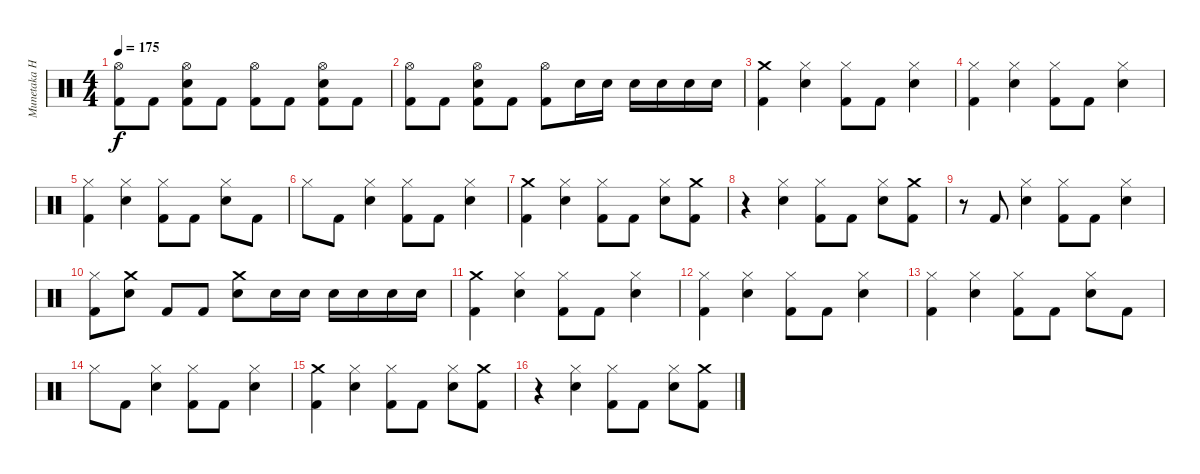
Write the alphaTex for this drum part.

\track ("Munetaka Higuchi" "Munetaka H") {instrument percussion}
\staff {score}
\articulation defaults
\ts (4 4)
\tempo 175
\clef neutral
\ks c
("Hi-Hat (open)" "Kick (hit) 2").8{dy f} "Kick (hit) 2".8 ("Hi-Hat (open)" "Electric Snare (hit)" "Kick (hit) 2").8 "Kick (hit) 2".8 ("Hi-Hat (open)" "Kick (hit) 2").8 "Kick (hit) 2".8 ("Hi-Hat (open)" "Electric Snare (hit)" "Kick (hit) 2").8 "Kick (hit) 2".8 |
("Hi-Hat (open)" "Kick (hit) 2").8 "Kick (hit) 2".8 ("Hi-Hat (open)" "Electric Snare (hit)" "Kick (hit) 2").8 "Kick (hit) 2".8 ("Hi-Hat (open)" "Kick (hit) 2").8 "Electric Snare (hit)".16 "Electric Snare (hit)".16 "Electric Snare (hit)".16 "Electric Snare (hit)".16 "Electric Snare (hit)".16 "Electric Snare (hit)".16 |
("Crash medium (hit)" "Kick (hit) 2").4 ("Hi-Hat (closed)" "Electric Snare (hit)").4 ("Hi-Hat (closed)" "Kick (hit) 2").8 "Kick (hit) 2".8 ("Hi-Hat (closed)" "Electric Snare (hit)").4 |
("Hi-Hat (closed)" "Kick (hit) 2").4 ("Hi-Hat (closed)" "Electric Snare (hit)").4 ("Hi-Hat (closed)" "Kick (hit) 2").8 "Kick (hit) 2".8 ("Hi-Hat (closed)" "Electric Snare (hit)").4 |
("Hi-Hat (closed)" "Kick (hit) 2").4 ("Hi-Hat (closed)" "Electric Snare (hit)").4 ("Hi-Hat (closed)" "Kick (hit) 2").8 "Kick (hit) 2".8 ("Hi-Hat (closed)" "Electric Snare (hit)").8 "Kick (hit) 2".8 |
"Hi-Hat (closed)".8 "Kick (hit) 2".8 ("Hi-Hat (closed)" "Electric Snare (hit)").4 ("Hi-Hat (closed)" "Kick (hit) 2").8 "Kick (hit) 2".8 ("Hi-Hat (closed)" "Electric Snare (hit)").4 |
("Crash medium (hit)" "Kick (hit) 2").4 ("Hi-Hat (closed)" "Electric Snare (hit)").4 ("Hi-Hat (closed)" "Kick (hit) 2").8 "Kick (hit) 2".8 ("Hi-Hat (closed)" "Electric Snare (hit)").8 ("Crash medium (hit)" "Kick (hit) 2").8 |
r.4 ("Hi-Hat (closed)" "Electric Snare (hit)").4 ("Hi-Hat (closed)" "Kick (hit) 2").8 "Kick (hit) 2".8 ("Hi-Hat (closed)" "Electric Snare (hit)").8 ("Crash medium (hit)" "Kick (hit) 2").8 |
r.8 "Kick (hit) 2".8 ("Hi-Hat (closed)" "Electric Snare (hit)").4 ("Hi-Hat (closed)" "Kick (hit) 2").8 "Kick (hit) 2".8 ("Hi-Hat (closed)" "Electric Snare (hit)").4 |
("Hi-Hat (closed)" "Kick (hit) 2").8 ("Crash medium (hit)" "Electric Snare (hit)").8 "Kick (hit) 2".8 "Kick (hit) 2".8 ("Crash medium (hit)" "Electric Snare (hit)").8 "Electric Snare (hit)".16 "Electric Snare (hit)".16 "Electric Snare (hit)".16 "Electric Snare (hit)".16 "Electric Snare (hit)".16 "Electric Snare (hit)".16 |
("Crash medium (hit)" "Kick (hit) 2").4 ("Hi-Hat (closed)" "Electric Snare (hit)").4 ("Hi-Hat (closed)" "Kick (hit) 2").8 "Kick (hit) 2".8 ("Hi-Hat (closed)" "Electric Snare (hit)").4 |
("Hi-Hat (closed)" "Kick (hit) 2").4 ("Hi-Hat (closed)" "Electric Snare (hit)").4 ("Hi-Hat (closed)" "Kick (hit) 2").8 "Kick (hit) 2".8 ("Hi-Hat (closed)" "Electric Snare (hit)").4 |
("Hi-Hat (closed)" "Kick (hit) 2").4 ("Hi-Hat (closed)" "Electric Snare (hit)").4 ("Hi-Hat (closed)" "Kick (hit) 2").8 "Kick (hit) 2".8 ("Hi-Hat (closed)" "Electric Snare (hit)").8 "Kick (hit) 2".8 |
"Hi-Hat (closed)".8 "Kick (hit) 2".8 ("Hi-Hat (closed)" "Electric Snare (hit)").4 ("Hi-Hat (closed)" "Kick (hit) 2").8 "Kick (hit) 2".8 ("Hi-Hat (closed)" "Electric Snare (hit)").4 |
("Crash medium (hit)" "Kick (hit) 2").4 ("Hi-Hat (closed)" "Electric Snare (hit)").4 ("Hi-Hat (closed)" "Kick (hit) 2").8 "Kick (hit) 2".8 ("Hi-Hat (closed)" "Electric Snare (hit)").8 ("Crash medium (hit)" "Kick (hit) 2").8 |
r.4 ("Hi-Hat (closed)" "Electric Snare (hit)").4 ("Hi-Hat (closed)" "Kick (hit) 2").8 "Kick (hit) 2".8 ("Hi-Hat (closed)" "Electric Snare (hit)").8 ("Crash medium (hit)" "Kick (hit) 2").8
